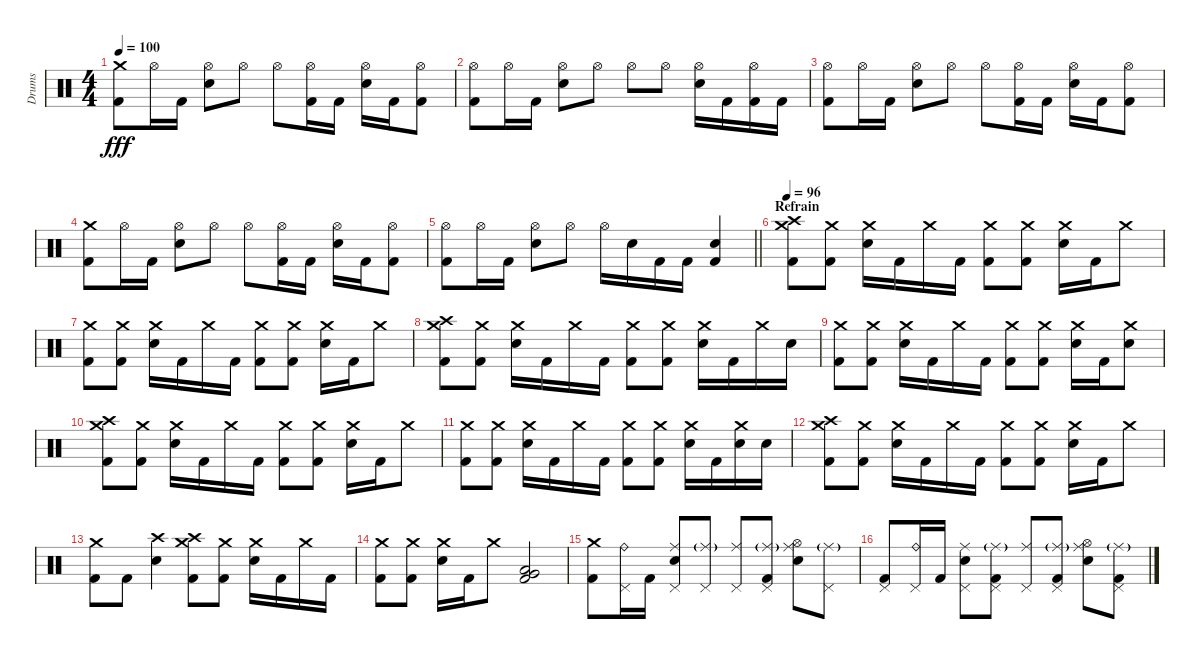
\track ("Drums" "Drums") {instrument percussion}
\staff {score}
\articulation defaults
\ts (4 4)
\tempo 100
\clef neutral
\ks c
("Crash medium (hit)" "Kick (hit) 2").8{dy fff} "Hi-Hat (open)".16 "Kick (hit) 2".16 ("Hi-Hat (open)" "Electric Snare (hit)").8 "Hi-Hat (open)".8 "Hi-Hat (open)".8 ("Hi-Hat (open)" "Kick (hit) 2").16 "Kick (hit) 2".16 ("Hi-Hat (open)" "Electric Snare (hit)").16 "Kick (hit) 2".16 ("Hi-Hat (open)" "Kick (hit) 2").8 |
("Hi-Hat (open)" "Kick (hit) 2").8 "Hi-Hat (open)".16 "Kick (hit) 2".16 ("Hi-Hat (open)" "Electric Snare (hit)").8 "Hi-Hat (open)".8 "Hi-Hat (open)".8 "Hi-Hat (open)".8 ("Hi-Hat (open)" "Electric Snare (hit)").16 "Kick (hit) 2".16 ("Hi-Hat (open)" "Kick (hit) 2").16 "Kick (hit) 2".16 |
("Hi-Hat (open)" "Kick (hit) 2").8 "Hi-Hat (open)".16 "Kick (hit) 2".16 ("Hi-Hat (open)" "Electric Snare (hit)").8 "Hi-Hat (open)".8 "Hi-Hat (open)".8 ("Hi-Hat (open)" "Kick (hit) 2").16 "Kick (hit) 2".16 ("Hi-Hat (open)" "Electric Snare (hit)").16 "Kick (hit) 2".16 ("Hi-Hat (open)" "Kick (hit) 2").8 |
("Crash medium (hit)" "Kick (hit) 2").8 "Hi-Hat (open)".16 "Kick (hit) 2".16 ("Hi-Hat (open)" "Electric Snare (hit)").8 "Hi-Hat (open)".8 "Hi-Hat (open)".8 ("Hi-Hat (open)" "Kick (hit) 2").16 "Kick (hit) 2".16 ("Hi-Hat (open)" "Electric Snare (hit)").16 "Kick (hit) 2".16 ("Hi-Hat (open)" "Kick (hit) 2").8 |
\barLineRight lightlight
("Hi-Hat (open)" "Kick (hit) 2").8 "Hi-Hat (open)".16 "Kick (hit) 2".16 ("Hi-Hat (open)" "Electric Snare (hit)").8 "Hi-Hat (open)".8 "Hi-Hat (open)".16 "Electric Snare (hit)".16 "Kick (hit) 2".16 "Kick (hit) 2".16 ("Kick (hit) 2" "Electric Snare (hit)").4 |
\section ("" "Refrain")
\tempo 96
("Crash medium (hit)" "Crash high (hit)" "Kick (hit) 2").8 ("Crash medium (hit)" "Kick (hit) 2").8 ("Crash medium (hit)" "Electric Snare (hit)").16 "Kick (hit) 2".16 "Crash medium (hit)".16 "Kick (hit) 2".16 ("Crash medium (hit)" "Kick (hit) 2").8 ("Crash medium (hit)" "Kick (hit) 2").8 ("Crash medium (hit)" "Electric Snare (hit)").16 "Kick (hit) 2".16 "Crash medium (hit)".8 |
("Crash medium (hit)" "Kick (hit) 2").8 ("Crash medium (hit)" "Kick (hit) 2").8 ("Crash medium (hit)" "Electric Snare (hit)").16 "Kick (hit) 2".16 "Crash medium (hit)".16 "Kick (hit) 2".16 ("Crash medium (hit)" "Kick (hit) 2").8 ("Crash medium (hit)" "Kick (hit) 2").8 ("Crash medium (hit)" "Electric Snare (hit)").16 "Kick (hit) 2".16 "Crash medium (hit)".8 |
("Crash medium (hit)" "Crash high (hit)" "Kick (hit) 2").8 ("Crash medium (hit)" "Kick (hit) 2").8 ("Crash medium (hit)" "Electric Snare (hit)").16 "Kick (hit) 2".16 "Crash medium (hit)".16 "Kick (hit) 2".16 ("Crash medium (hit)" "Kick (hit) 2").8 ("Crash medium (hit)" "Kick (hit) 2").8 ("Crash medium (hit)" "Electric Snare (hit)").16 "Kick (hit) 2".16 "Crash medium (hit)".16 "Electric Snare (hit)".16 |
("Crash medium (hit)" "Kick (hit) 2").8 ("Crash medium (hit)" "Kick (hit) 2").8 ("Crash medium (hit)" "Electric Snare (hit)").16 "Kick (hit) 2".16 "Crash medium (hit)".16 "Kick (hit) 2".16 ("Crash medium (hit)" "Kick (hit) 2").8 ("Crash medium (hit)" "Kick (hit) 2").8 ("Crash medium (hit)" "Electric Snare (hit)").16 "Kick (hit) 2".16 ("Crash medium (hit)" "Electric Snare (hit)").8 |
("Crash medium (hit)" "Crash high (hit)" "Kick (hit) 2").8 ("Crash medium (hit)" "Kick (hit) 2").8 ("Crash medium (hit)" "Electric Snare (hit)").16 "Kick (hit) 2".16 "Crash medium (hit)".16 "Kick (hit) 2".16 ("Crash medium (hit)" "Kick (hit) 2").8 ("Crash medium (hit)" "Kick (hit) 2").8 ("Crash medium (hit)" "Electric Snare (hit)").16 "Kick (hit) 2".16 "Crash medium (hit)".8 |
("Crash medium (hit)" "Kick (hit) 2").8 ("Crash medium (hit)" "Kick (hit) 2").8 ("Crash medium (hit)" "Electric Snare (hit)").16 "Kick (hit) 2".16 "Crash medium (hit)".16 "Kick (hit) 2".16 ("Crash medium (hit)" "Kick (hit) 2").8 ("Crash medium (hit)" "Kick (hit) 2").8 ("Crash medium (hit)" "Electric Snare (hit)").16 "Kick (hit) 2".16 ("Crash medium (hit)" "Electric Snare (hit)").16 "Electric Snare (hit)".16 |
("Crash medium (hit)" "Crash high (hit)" "Kick (hit) 2").8 ("Crash medium (hit)" "Kick (hit) 2").8 ("Crash medium (hit)" "Electric Snare (hit)").16 "Kick (hit) 2".16 "Crash medium (hit)".16 "Kick (hit) 2".16 ("Crash medium (hit)" "Kick (hit) 2").8 ("Crash medium (hit)" "Kick (hit) 2").8 ("Crash medium (hit)" "Electric Snare (hit)").16 "Kick (hit) 2".16 "Crash medium (hit)".8 |
("Crash medium (hit)" "Kick (hit) 2").8 "Kick (hit) 2".8 ("Crash high (hit)" "Snare (hit) 2").4 ("Crash medium (hit)" "Crash high (hit)" "Kick (hit) 2").8 ("Crash medium (hit)" "Kick (hit) 2").8 ("Crash medium (hit)" "Electric Snare (hit)").16 "Kick (hit) 2".16 "Crash medium (hit)".16 "Kick (hit) 2".16 |
("Crash medium (hit)" "Kick (hit) 2").8 ("Crash medium (hit)" "Kick (hit) 2").8 ("Crash medium (hit)" "Electric Snare (hit)").16 "Kick (hit) 2".16 "Crash medium (hit)".8 ("Kick (hit) 2" "Very Low Tom (hit)" "Low Tom (hit)").2 |
("Crash medium (hit)" "Kick (hit) 2").8 ("Ride (bell)" "Pedal Hi-Hat (hit)").16 "Kick (hit) 2".16 ("Ride (middle)" "Pedal Hi-Hat (hit)" "Electric Snare (hit)").8 ("Ride (middle)"{g} "Pedal Hi-Hat (hit)").8 ("Ride (middle)" "Pedal Hi-Hat (hit)").8 ("Ride (middle)"{g} "Pedal Hi-Hat (hit)" "Kick (hit) 2").8 ("Ride (middle)" "Hi-Hat (open)" "Electric Snare (hit)").8 ("Ride (middle)"{g} "Pedal Hi-Hat (hit)").8 |
("Pedal Hi-Hat (hit)" "Kick (hit) 2").8 ("Ride (bell)" "Pedal Hi-Hat (hit)").16 "Kick (hit) 2".16 ("Ride (middle)" "Pedal Hi-Hat (hit)" "Electric Snare (hit)").8 ("Ride (middle)"{g} "Pedal Hi-Hat (hit)" "Kick (hit) 2").8 ("Ride (middle)" "Pedal Hi-Hat (hit)").8 ("Ride (middle)"{g} "Pedal Hi-Hat (hit)" "Kick (hit) 2").8 ("Ride (middle)" "Hi-Hat (open)" "Electric Snare (hit)").8 ("Ride (middle)"{g} "Pedal Hi-Hat (hit)" "Kick (hit) 2").8
